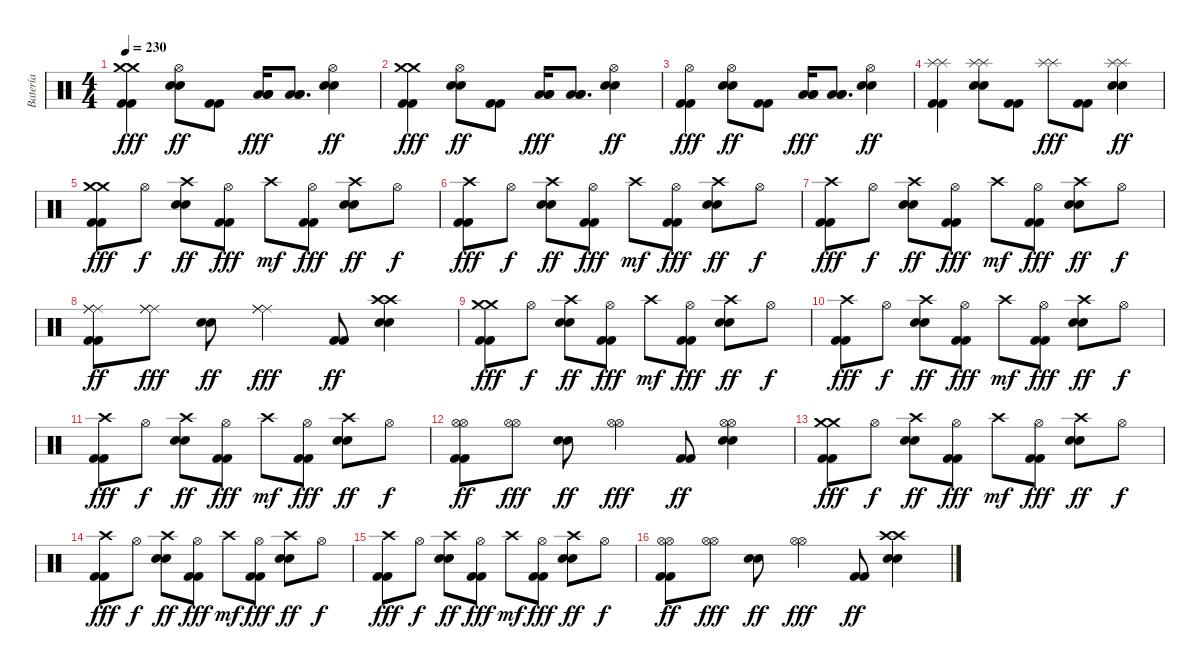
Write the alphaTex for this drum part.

\track ("Batería" "Batería") {instrument percussion}
\staff {score}
\articulation defaults
\ts (4 4)
\tempo 230
\clef neutral
\ks c
("Crash medium (hit)" "Crash medium (hit)" "Kick (hit) 2" "Kick (hit) 2").4{dy fff} ("Hi-Hat (open)" "Electric Snare (hit)" "Electric Snare (hit)").8{dy ff} ("Kick (hit) 2" "Kick (hit) 2").8 ("Low Tom (hit)" "Low Floor Tom (hit)" "Low Floor Tom (hit)").16{dy fff} ("Low Tom (hit)" "Low Floor Tom (hit)" "Low Floor Tom (hit)").8{d} ("Hi-Hat (open)" "Electric Snare (hit)" "Electric Snare (hit)").4{dy ff} |
("Crash medium (hit)" "Crash medium (hit)" "Kick (hit) 2" "Kick (hit) 2").4{dy fff} ("Hi-Hat (open)" "Electric Snare (hit)" "Electric Snare (hit)").8{dy ff} ("Kick (hit) 2" "Kick (hit) 2").8 ("Low Tom (hit)" "Low Floor Tom (hit)" "Low Floor Tom (hit)").16{dy fff} ("Low Tom (hit)" "Low Floor Tom (hit)" "Low Floor Tom (hit)").8{d} ("Hi-Hat (open)" "Electric Snare (hit)" "Electric Snare (hit)").4{dy ff} |
("Hi-Hat (open)" "Kick (hit) 2" "Kick (hit) 2").4{dy fff} ("Hi-Hat (open)" "Electric Snare (hit)" "Electric Snare (hit)").8{dy ff} ("Kick (hit) 2" "Kick (hit) 2").8 ("Low Tom (hit)" "Low Floor Tom (hit)" "Low Floor Tom (hit)").16{dy fff} ("Low Tom (hit)" "Low Floor Tom (hit)" "Low Floor Tom (hit)").8{d} ("Hi-Hat (open)" "Electric Snare (hit)" "Electric Snare (hit)").4{dy ff} |
("Splash (hit)" "Splash (hit)" "Kick (hit) 2" "Kick (hit) 2").4 ("Splash (hit)" "Splash (hit)" "Electric Snare (hit)" "Electric Snare (hit)").8 ("Kick (hit) 2" "Kick (hit) 2").8 ("Splash (hit)" "Splash (hit)").8{dy fff} ("Kick (hit) 2" "Kick (hit) 2").8 ("Splash (hit)" "Splash (hit)" "Electric Snare (hit)" "Electric Snare (hit)").4{dy ff} |
("Crash medium (hit)" "Crash medium (hit)" "Kick (hit) 2" "Kick (hit) 2").8{dy fff} "Hi-Hat (open)".8{dy f} ("Crash high (hit)" "Electric Snare (hit)" "Electric Snare (hit)").8{dy ff} ("Hi-Hat (open)" "Kick (hit) 2" "Kick (hit) 2").8{dy fff} "Crash high (hit)".8{dy mf} ("Hi-Hat (open)" "Kick (hit) 2" "Kick (hit) 2").8{dy fff} ("Crash high (hit)" "Electric Snare (hit)" "Electric Snare (hit)").8{dy ff} "Hi-Hat (open)".8{dy f} |
("Crash high (hit)" "Kick (hit) 2" "Kick (hit) 2").8{dy fff} "Hi-Hat (open)".8{dy f} ("Crash high (hit)" "Electric Snare (hit)" "Electric Snare (hit)").8{dy ff} ("Hi-Hat (open)" "Kick (hit) 2" "Kick (hit) 2").8{dy fff} "Crash high (hit)".8{dy mf} ("Hi-Hat (open)" "Kick (hit) 2" "Kick (hit) 2").8{dy fff} ("Crash high (hit)" "Electric Snare (hit)" "Electric Snare (hit)").8{dy ff} "Hi-Hat (open)".8{dy f} |
("Crash high (hit)" "Kick (hit) 2" "Kick (hit) 2").8{dy fff} "Hi-Hat (open)".8{dy f} ("Crash high (hit)" "Electric Snare (hit)" "Electric Snare (hit)").8{dy ff} ("Hi-Hat (open)" "Kick (hit) 2" "Kick (hit) 2").8{dy fff} "Crash high (hit)".8{dy mf} ("Hi-Hat (open)" "Kick (hit) 2" "Kick (hit) 2").8{dy fff} ("Crash high (hit)" "Electric Snare (hit)" "Electric Snare (hit)").8{dy ff} "Hi-Hat (open)".8{dy f} |
("Ride (middle)" "Ride (middle)" "Ride (middle)" "Kick (hit) 2" "Kick (hit) 2").8{dy ff} ("Ride (middle)" "Ride (middle)" "Ride (middle)").8{dy fff} ("Electric Snare (hit)" "Electric Snare (hit)").8{dy ff} ("Ride (middle)" "Ride (middle)" "Ride (middle)").4{dy fff} ("Kick (hit) 2" "Kick (hit) 2").8{dy ff} ("Crash high (hit)" "Crash high (hit)" "Electric Snare (hit)" "Electric Snare (hit)").4 |
("Crash medium (hit)" "Crash medium (hit)" "Kick (hit) 2" "Kick (hit) 2").8{dy fff} "Hi-Hat (open)".8{dy f} ("Crash high (hit)" "Electric Snare (hit)" "Electric Snare (hit)").8{dy ff} ("Hi-Hat (open)" "Kick (hit) 2" "Kick (hit) 2").8{dy fff} "Crash high (hit)".8{dy mf} ("Hi-Hat (open)" "Kick (hit) 2" "Kick (hit) 2").8{dy fff} ("Crash high (hit)" "Electric Snare (hit)" "Electric Snare (hit)").8{dy ff} "Hi-Hat (open)".8{dy f} |
("Crash high (hit)" "Kick (hit) 2" "Kick (hit) 2").8{dy fff} "Hi-Hat (open)".8{dy f} ("Crash high (hit)" "Electric Snare (hit)" "Electric Snare (hit)").8{dy ff} ("Hi-Hat (open)" "Kick (hit) 2" "Kick (hit) 2").8{dy fff} "Crash high (hit)".8{dy mf} ("Hi-Hat (open)" "Kick (hit) 2" "Kick (hit) 2").8{dy fff} ("Crash high (hit)" "Electric Snare (hit)" "Electric Snare (hit)").8{dy ff} "Hi-Hat (open)".8{dy f} |
("Crash high (hit)" "Kick (hit) 2" "Kick (hit) 2").8{dy fff} "Hi-Hat (open)".8{dy f} ("Crash high (hit)" "Electric Snare (hit)" "Electric Snare (hit)").8{dy ff} ("Hi-Hat (open)" "Kick (hit) 2" "Kick (hit) 2").8{dy fff} "Crash high (hit)".8{dy mf} ("Hi-Hat (open)" "Kick (hit) 2" "Kick (hit) 2").8{dy fff} ("Crash high (hit)" "Electric Snare (hit)" "Electric Snare (hit)").8{dy ff} "Hi-Hat (open)".8{dy f} |
("Hi-Hat (open)" "Hi-Hat (open)" "Kick (hit) 2" "Kick (hit) 2").8{dy ff} ("Hi-Hat (open)" "Hi-Hat (open)").8{dy fff} ("Electric Snare (hit)" "Electric Snare (hit)").8{dy ff} ("Hi-Hat (open)" "Hi-Hat (open)").4{dy fff} ("Kick (hit) 2" "Kick (hit) 2").8{dy ff} ("Hi-Hat (open)" "Hi-Hat (open)" "Electric Snare (hit)" "Electric Snare (hit)").4 |
("Crash medium (hit)" "Crash medium (hit)" "Kick (hit) 2" "Kick (hit) 2").8{dy fff} "Hi-Hat (open)".8{dy f} ("Crash high (hit)" "Electric Snare (hit)" "Electric Snare (hit)").8{dy ff} ("Hi-Hat (open)" "Kick (hit) 2" "Kick (hit) 2").8{dy fff} "Crash high (hit)".8{dy mf} ("Hi-Hat (open)" "Kick (hit) 2" "Kick (hit) 2").8{dy fff} ("Crash high (hit)" "Electric Snare (hit)" "Electric Snare (hit)").8{dy ff} "Hi-Hat (open)".8{dy f} |
("Crash high (hit)" "Kick (hit) 2" "Kick (hit) 2").8{dy fff} "Hi-Hat (open)".8{dy f} ("Crash high (hit)" "Electric Snare (hit)" "Electric Snare (hit)").8{dy ff} ("Hi-Hat (open)" "Kick (hit) 2" "Kick (hit) 2").8{dy fff} "Crash high (hit)".8{dy mf} ("Hi-Hat (open)" "Kick (hit) 2" "Kick (hit) 2").8{dy fff} ("Crash high (hit)" "Electric Snare (hit)" "Electric Snare (hit)").8{dy ff} "Hi-Hat (open)".8{dy f} |
("Crash high (hit)" "Kick (hit) 2" "Kick (hit) 2").8{dy fff} "Hi-Hat (open)".8{dy f} ("Crash high (hit)" "Electric Snare (hit)" "Electric Snare (hit)").8{dy ff} ("Hi-Hat (open)" "Kick (hit) 2" "Kick (hit) 2").8{dy fff} "Crash high (hit)".8{dy mf} ("Hi-Hat (open)" "Kick (hit) 2" "Kick (hit) 2").8{dy fff} ("Crash high (hit)" "Electric Snare (hit)" "Electric Snare (hit)").8{dy ff} "Hi-Hat (open)".8{dy f} |
("Hi-Hat (open)" "Hi-Hat (open)" "Kick (hit) 2" "Kick (hit) 2").8{dy ff} ("Hi-Hat (open)" "Hi-Hat (open)").8{dy fff} ("Electric Snare (hit)" "Electric Snare (hit)").8{dy ff} ("Hi-Hat (open)" "Hi-Hat (open)").4{dy fff} ("Kick (hit) 2" "Kick (hit) 2").8{dy ff} ("Crash high (hit)" "Crash high (hit)" "Electric Snare (hit)" "Electric Snare (hit)").4
